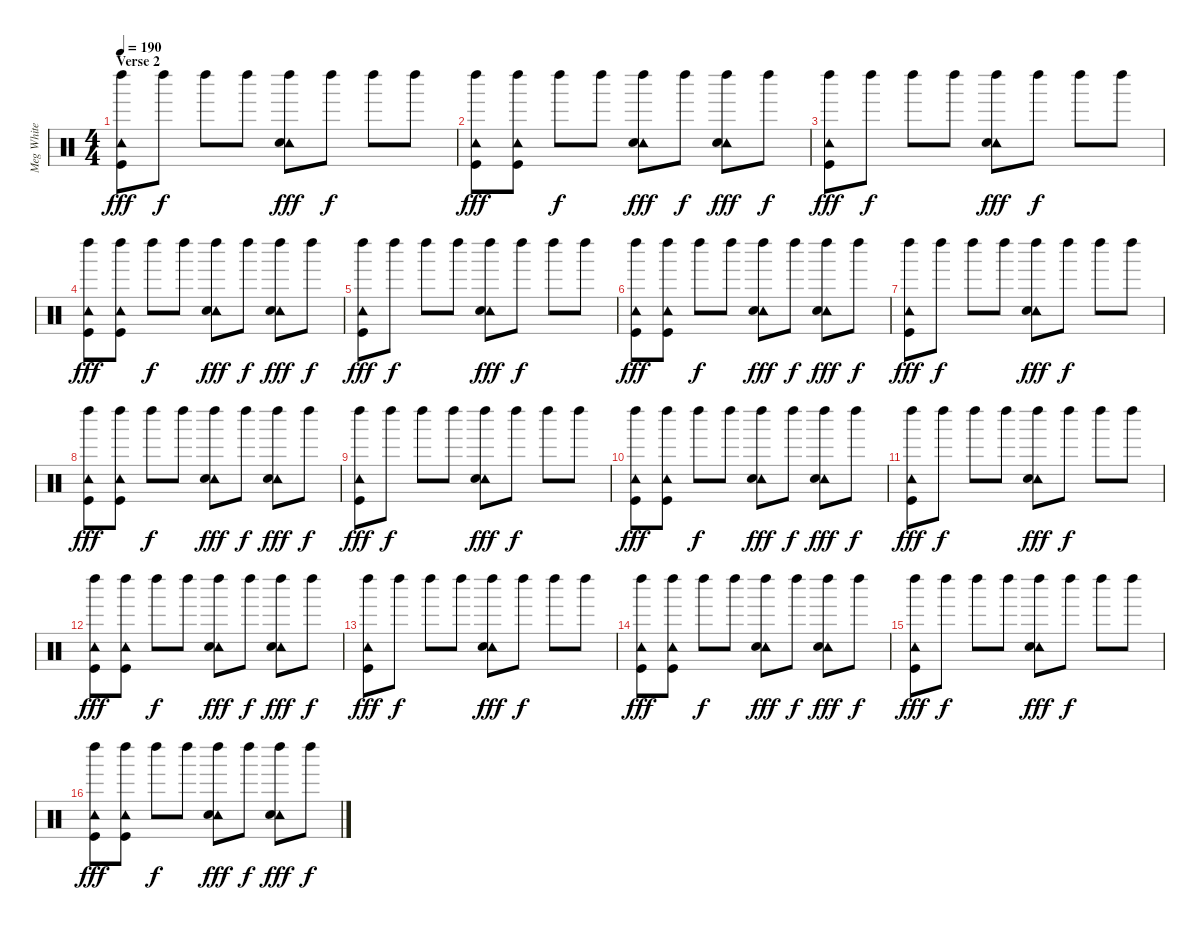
\track ("Meg White" "Meg White") {instrument percussion}
\staff {score}
\articulation defaults
\ts (4 4)
\section ("" "Verse 2")
\tempo 190
\clef neutral
\ks c
("Tambourine (hit)" "Kick (hit)" "Left Maraca (hit)").8{dy fff} "Left Maraca (hit)".8{dy f} "Left Maraca (hit)".8 "Left Maraca (hit)".8 ("Tambourine (hit)" "Snare (hit) 2" "Left Maraca (hit)").8{dy fff} "Left Maraca (hit)".8{dy f} "Left Maraca (hit)".8 "Left Maraca (hit)".8 |
("Tambourine (hit)" "Kick (hit)" "Left Maraca (hit)").8{dy fff} ("Tambourine (hit)" "Kick (hit)" "Left Maraca (hit)").8 "Left Maraca (hit)".8{dy f} "Left Maraca (hit)".8 ("Tambourine (hit)" "Snare (hit) 2" "Left Maraca (hit)").8{dy fff} "Left Maraca (hit)".8{dy f} ("Tambourine (hit)" "Snare (hit) 2" "Left Maraca (hit)").8{dy fff} "Left Maraca (hit)".8{dy f} |
("Tambourine (hit)" "Kick (hit)" "Left Maraca (hit)").8{dy fff} "Left Maraca (hit)".8{dy f} "Left Maraca (hit)".8 "Left Maraca (hit)".8 ("Tambourine (hit)" "Snare (hit) 2" "Left Maraca (hit)").8{dy fff} "Left Maraca (hit)".8{dy f} "Left Maraca (hit)".8 "Left Maraca (hit)".8 |
("Tambourine (hit)" "Kick (hit)" "Left Maraca (hit)").8{dy fff} ("Tambourine (hit)" "Kick (hit)" "Left Maraca (hit)").8 "Left Maraca (hit)".8{dy f} "Left Maraca (hit)".8 ("Tambourine (hit)" "Snare (hit) 2" "Left Maraca (hit)").8{dy fff} "Left Maraca (hit)".8{dy f} ("Tambourine (hit)" "Snare (hit) 2" "Left Maraca (hit)").8{dy fff} "Left Maraca (hit)".8{dy f} |
("Tambourine (hit)" "Kick (hit)" "Left Maraca (hit)").8{dy fff} "Left Maraca (hit)".8{dy f} "Left Maraca (hit)".8 "Left Maraca (hit)".8 ("Tambourine (hit)" "Snare (hit) 2" "Left Maraca (hit)").8{dy fff} "Left Maraca (hit)".8{dy f} "Left Maraca (hit)".8 "Left Maraca (hit)".8 |
("Tambourine (hit)" "Kick (hit)" "Left Maraca (hit)").8{dy fff} ("Tambourine (hit)" "Kick (hit)" "Left Maraca (hit)").8 "Left Maraca (hit)".8{dy f} "Left Maraca (hit)".8 ("Tambourine (hit)" "Snare (hit) 2" "Left Maraca (hit)").8{dy fff} "Left Maraca (hit)".8{dy f} ("Tambourine (hit)" "Snare (hit) 2" "Left Maraca (hit)").8{dy fff} "Left Maraca (hit)".8{dy f} |
("Tambourine (hit)" "Kick (hit)" "Left Maraca (hit)").8{dy fff} "Left Maraca (hit)".8{dy f} "Left Maraca (hit)".8 "Left Maraca (hit)".8 ("Tambourine (hit)" "Snare (hit) 2" "Left Maraca (hit)").8{dy fff} "Left Maraca (hit)".8{dy f} "Left Maraca (hit)".8 "Left Maraca (hit)".8 |
("Tambourine (hit)" "Kick (hit)" "Left Maraca (hit)").8{dy fff} ("Tambourine (hit)" "Kick (hit)" "Left Maraca (hit)").8 "Left Maraca (hit)".8{dy f} "Left Maraca (hit)".8 ("Tambourine (hit)" "Snare (hit) 2" "Left Maraca (hit)").8{dy fff} "Left Maraca (hit)".8{dy f} ("Tambourine (hit)" "Snare (hit) 2" "Left Maraca (hit)").8{dy fff} "Left Maraca (hit)".8{dy f} |
("Tambourine (hit)" "Kick (hit)" "Left Maraca (hit)").8{dy fff} "Left Maraca (hit)".8{dy f} "Left Maraca (hit)".8 "Left Maraca (hit)".8 ("Tambourine (hit)" "Snare (hit) 2" "Left Maraca (hit)").8{dy fff} "Left Maraca (hit)".8{dy f} "Left Maraca (hit)".8 "Left Maraca (hit)".8 |
("Tambourine (hit)" "Kick (hit)" "Left Maraca (hit)").8{dy fff} ("Tambourine (hit)" "Kick (hit)" "Left Maraca (hit)").8 "Left Maraca (hit)".8{dy f} "Left Maraca (hit)".8 ("Tambourine (hit)" "Snare (hit) 2" "Left Maraca (hit)").8{dy fff} "Left Maraca (hit)".8{dy f} ("Tambourine (hit)" "Snare (hit) 2" "Left Maraca (hit)").8{dy fff} "Left Maraca (hit)".8{dy f} |
("Tambourine (hit)" "Kick (hit)" "Left Maraca (hit)").8{dy fff} "Left Maraca (hit)".8{dy f} "Left Maraca (hit)".8 "Left Maraca (hit)".8 ("Tambourine (hit)" "Snare (hit) 2" "Left Maraca (hit)").8{dy fff} "Left Maraca (hit)".8{dy f} "Left Maraca (hit)".8 "Left Maraca (hit)".8 |
("Tambourine (hit)" "Kick (hit)" "Left Maraca (hit)").8{dy fff} ("Tambourine (hit)" "Kick (hit)" "Left Maraca (hit)").8 "Left Maraca (hit)".8{dy f} "Left Maraca (hit)".8 ("Tambourine (hit)" "Snare (hit) 2" "Left Maraca (hit)").8{dy fff} "Left Maraca (hit)".8{dy f} ("Tambourine (hit)" "Snare (hit) 2" "Left Maraca (hit)").8{dy fff} "Left Maraca (hit)".8{dy f} |
("Tambourine (hit)" "Kick (hit)" "Left Maraca (hit)").8{dy fff} "Left Maraca (hit)".8{dy f} "Left Maraca (hit)".8 "Left Maraca (hit)".8 ("Tambourine (hit)" "Snare (hit) 2" "Left Maraca (hit)").8{dy fff} "Left Maraca (hit)".8{dy f} "Left Maraca (hit)".8 "Left Maraca (hit)".8 |
("Tambourine (hit)" "Kick (hit)" "Left Maraca (hit)").8{dy fff} ("Tambourine (hit)" "Kick (hit)" "Left Maraca (hit)").8 "Left Maraca (hit)".8{dy f} "Left Maraca (hit)".8 ("Tambourine (hit)" "Snare (hit) 2" "Left Maraca (hit)").8{dy fff} "Left Maraca (hit)".8{dy f} ("Tambourine (hit)" "Snare (hit) 2" "Left Maraca (hit)").8{dy fff} "Left Maraca (hit)".8{dy f} |
("Tambourine (hit)" "Kick (hit)" "Left Maraca (hit)").8{dy fff} "Left Maraca (hit)".8{dy f} "Left Maraca (hit)".8 "Left Maraca (hit)".8 ("Tambourine (hit)" "Snare (hit) 2" "Left Maraca (hit)").8{dy fff} "Left Maraca (hit)".8{dy f} "Left Maraca (hit)".8 "Left Maraca (hit)".8 |
("Tambourine (hit)" "Kick (hit)" "Left Maraca (hit)").8{dy fff} ("Tambourine (hit)" "Kick (hit)" "Left Maraca (hit)").8 "Left Maraca (hit)".8{dy f} "Left Maraca (hit)".8 ("Tambourine (hit)" "Snare (hit) 2" "Left Maraca (hit)").8{dy fff} "Left Maraca (hit)".8{dy f} ("Tambourine (hit)" "Snare (hit) 2" "Left Maraca (hit)").8{dy fff} "Left Maraca (hit)".8{dy f}
